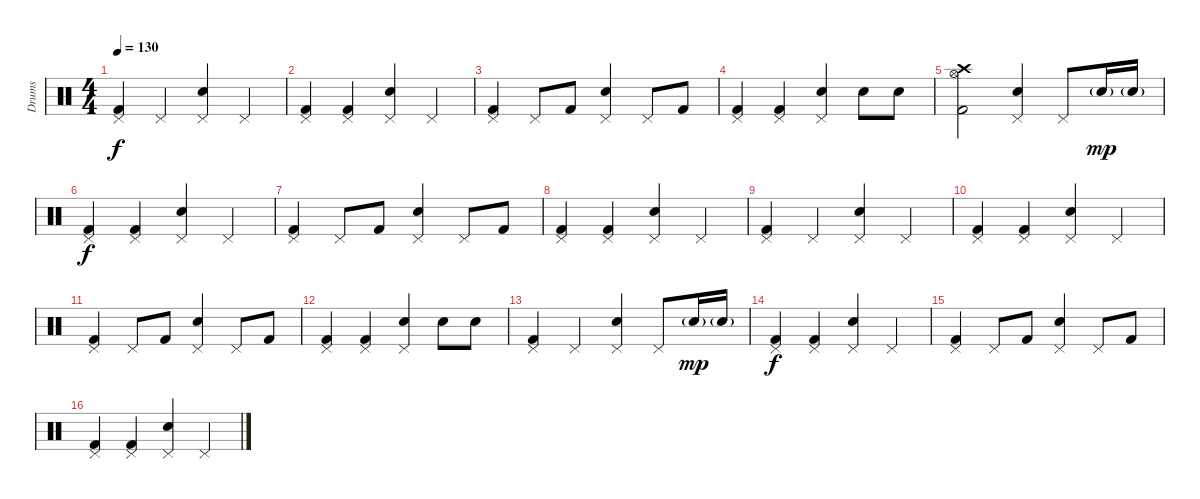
\track ("Drums" "Drums") {instrument percussion}
\staff {score}
\articulation defaults
\ts (4 4)
\tempo 130
\clef neutral
\ks c
("Pedal Hi-Hat (hit)" "Kick (hit) 2").4{dy f} "Pedal Hi-Hat (hit)".4 ("Pedal Hi-Hat (hit)" "Electric Snare (hit)").4 "Pedal Hi-Hat (hit)".4 |
("Pedal Hi-Hat (hit)" "Kick (hit) 2").4 ("Pedal Hi-Hat (hit)" "Kick (hit) 2").4 ("Pedal Hi-Hat (hit)" "Electric Snare (hit)").4 "Pedal Hi-Hat (hit)".4 |
("Pedal Hi-Hat (hit)" "Kick (hit) 2").4 "Pedal Hi-Hat (hit)".8 "Kick (hit) 2".8 ("Pedal Hi-Hat (hit)" "Electric Snare (hit)").4 "Pedal Hi-Hat (hit)".8 "Kick (hit) 2".8 |
("Pedal Hi-Hat (hit)" "Kick (hit) 2").4 ("Pedal Hi-Hat (hit)" "Kick (hit) 2").4 ("Pedal Hi-Hat (hit)" "Electric Snare (hit)").4 "Electric Snare (hit)".8 "Electric Snare (hit)".8 |
("Crash high (hit)" "Hi-Hat (open)" "Kick (hit) 2").2 ("Pedal Hi-Hat (hit)" "Electric Snare (hit)").4 "Pedal Hi-Hat (hit)".8 "Electric Snare (hit)"{g}.16{dy mp} "Electric Snare (hit)"{g}.16 |
("Pedal Hi-Hat (hit)" "Kick (hit) 2").4{dy f} ("Pedal Hi-Hat (hit)" "Kick (hit) 2").4 ("Pedal Hi-Hat (hit)" "Electric Snare (hit)").4 "Pedal Hi-Hat (hit)".4 |
("Pedal Hi-Hat (hit)" "Kick (hit) 2").4 "Pedal Hi-Hat (hit)".8 "Kick (hit) 2".8 ("Pedal Hi-Hat (hit)" "Electric Snare (hit)").4 "Pedal Hi-Hat (hit)".8 "Kick (hit) 2".8 |
("Pedal Hi-Hat (hit)" "Kick (hit) 2").4 ("Pedal Hi-Hat (hit)" "Kick (hit) 2").4 ("Pedal Hi-Hat (hit)" "Electric Snare (hit)").4 "Pedal Hi-Hat (hit)".4 |
("Pedal Hi-Hat (hit)" "Kick (hit) 2").4 "Pedal Hi-Hat (hit)".4 ("Pedal Hi-Hat (hit)" "Electric Snare (hit)").4 "Pedal Hi-Hat (hit)".4 |
("Pedal Hi-Hat (hit)" "Kick (hit) 2").4 ("Pedal Hi-Hat (hit)" "Kick (hit) 2").4 ("Pedal Hi-Hat (hit)" "Electric Snare (hit)").4 "Pedal Hi-Hat (hit)".4 |
("Pedal Hi-Hat (hit)" "Kick (hit) 2").4 "Pedal Hi-Hat (hit)".8 "Kick (hit) 2".8 ("Pedal Hi-Hat (hit)" "Electric Snare (hit)").4 "Pedal Hi-Hat (hit)".8 "Kick (hit) 2".8 |
("Pedal Hi-Hat (hit)" "Kick (hit) 2").4 ("Pedal Hi-Hat (hit)" "Kick (hit) 2").4 ("Pedal Hi-Hat (hit)" "Electric Snare (hit)").4 "Electric Snare (hit)".8 "Electric Snare (hit)".8 |
("Pedal Hi-Hat (hit)" "Kick (hit) 2").4 "Pedal Hi-Hat (hit)".4 ("Pedal Hi-Hat (hit)" "Electric Snare (hit)").4 "Pedal Hi-Hat (hit)".8 "Electric Snare (hit)"{g}.16{dy mp} "Electric Snare (hit)"{g}.16 |
("Pedal Hi-Hat (hit)" "Kick (hit) 2").4{dy f} ("Pedal Hi-Hat (hit)" "Kick (hit) 2").4 ("Pedal Hi-Hat (hit)" "Electric Snare (hit)").4 "Pedal Hi-Hat (hit)".4 |
("Pedal Hi-Hat (hit)" "Kick (hit) 2").4 "Pedal Hi-Hat (hit)".8 "Kick (hit) 2".8 ("Pedal Hi-Hat (hit)" "Electric Snare (hit)").4 "Pedal Hi-Hat (hit)".8 "Kick (hit) 2".8 |
("Pedal Hi-Hat (hit)" "Kick (hit) 2").4 ("Pedal Hi-Hat (hit)" "Kick (hit) 2").4 ("Pedal Hi-Hat (hit)" "Electric Snare (hit)").4 "Pedal Hi-Hat (hit)".4
